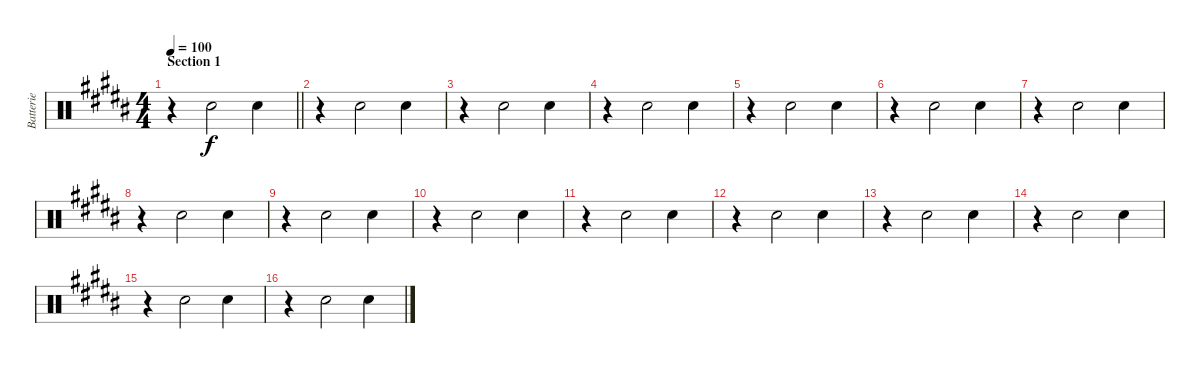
\track ("Batterie" "Batterie") {instrument percussion}
\staff {score}
\articulation defaults
\ts (4 4)
\section ("" "Section 1")
\tempo 100
\clef neutral
\barLineRight lightlight
\ks b
r.4{dy f} "Snare (hit) 2".2 "Snare (hit) 2".4 |
r.4 "Snare (hit) 2".2 "Snare (hit) 2".4 |
r.4 "Snare (hit) 2".2 "Snare (hit) 2".4 |
r.4 "Snare (hit) 2".2 "Snare (hit) 2".4 |
r.4 "Snare (hit) 2".2 "Snare (hit) 2".4 |
r.4 "Snare (hit) 2".2 "Snare (hit) 2".4 |
r.4 "Snare (hit) 2".2 "Snare (hit) 2".4 |
r.4 "Snare (hit) 2".2 "Snare (hit) 2".4 |
r.4 "Snare (hit) 2".2 "Snare (hit) 2".4 |
r.4 "Snare (hit) 2".2 "Snare (hit) 2".4 |
r.4 "Snare (hit) 2".2 "Snare (hit) 2".4 |
r.4 "Snare (hit) 2".2 "Snare (hit) 2".4 |
r.4 "Snare (hit) 2".2 "Snare (hit) 2".4 |
r.4 "Snare (hit) 2".2 "Snare (hit) 2".4 |
r.4 "Snare (hit) 2".2 "Snare (hit) 2".4 |
r.4 "Snare (hit) 2".2 "Snare (hit) 2".4
